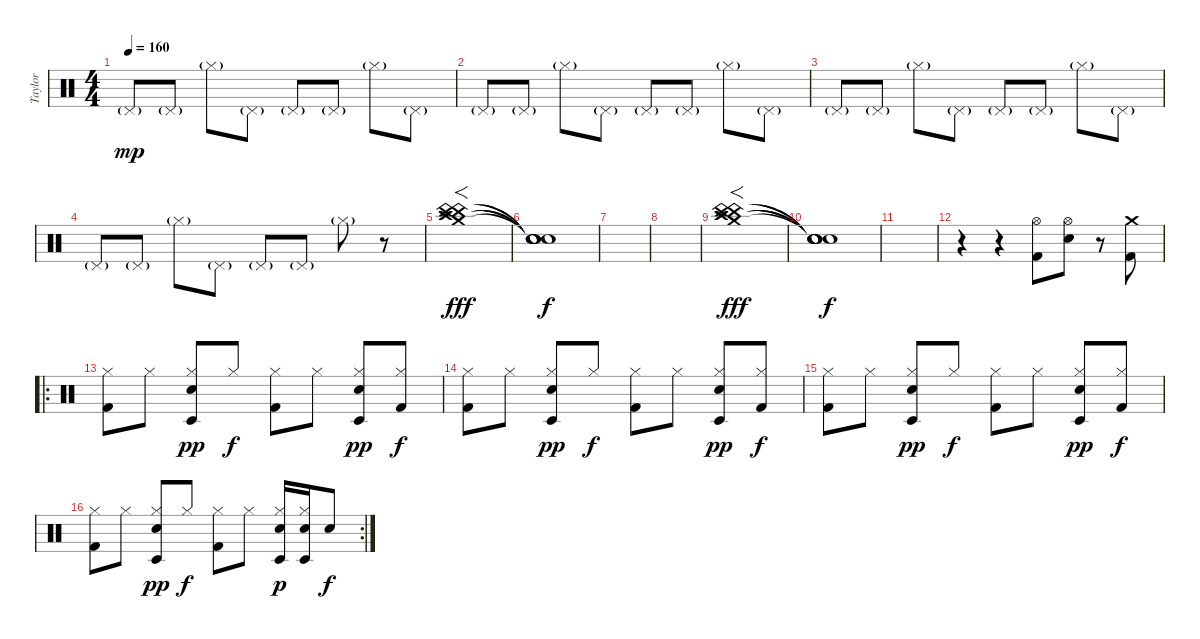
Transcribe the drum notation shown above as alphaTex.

\track ("Taylor" "Taylor") {instrument percussion}
\staff {score}
\articulation defaults
\ts (4 4)
\tempo 160
\clef neutral
\ks c "Pedal Hi-Hat (hit)"{g}.8{dy mp} "Pedal Hi-Hat (hit)"{g}.8 "Hi-Hat (closed)"{g}.8 "Pedal Hi-Hat (hit)"{g}.8 "Pedal Hi-Hat (hit)"{g}.8 "Pedal Hi-Hat (hit)"{g}.8 "Hi-Hat (closed)"{g}.8 "Pedal Hi-Hat (hit)"{g}.8
|
"Pedal Hi-Hat (hit)"{g}.8 "Pedal Hi-Hat (hit)"{g}.8 "Hi-Hat (closed)"{g}.8 "Pedal Hi-Hat (hit)"{g}.8 "Pedal Hi-Hat (hit)"{g}.8 "Pedal Hi-Hat (hit)"{g}.8 "Hi-Hat (closed)"{g}.8 "Pedal Hi-Hat (hit)"{g}.8 |
"Pedal Hi-Hat (hit)"{g}.8 "Pedal Hi-Hat (hit)"{g}.8 "Hi-Hat (closed)"{g}.8 "Pedal Hi-Hat (hit)"{g}.8 "Pedal Hi-Hat (hit)"{g}.8 "Pedal Hi-Hat (hit)"{g}.8 "Hi-Hat (closed)"{g}.8 "Pedal Hi-Hat (hit)"{g}.8 |
"Pedal Hi-Hat (hit)"{g}.8 "Pedal Hi-Hat (hit)"{g}.8 "Hi-Hat (closed)"{g}.8 "Pedal Hi-Hat (hit)"{g}.8 "Pedal Hi-Hat (hit)"{g}.8 "Pedal Hi-Hat (hit)"{g}.8 "Hi-Hat (closed)"{g}.8 r.8 |
("Crash medium (hit)" "Crash high (hit)" "China (hit)" "China (hit)" "Crash high (hit)").1{f dy fff} |
("Snare (hit)"{t} "Snare (hit)"{t} "Snare (hit)"{t} "Snare (hit)"{t} "Snare (hit)"{t}).1{dy f} |
|
|
("Crash medium (hit)" "Crash high (hit)" "China (hit)" "China (hit)" "Crash high (hit)").1{f dy fff} |
("Snare (hit)"{t} "Snare (hit)"{t} "Snare (hit)"{t} "Snare (hit)"{t} "Snare (hit)"{t}).1{dy f} |
|
r.4 r.4 ("Hi-Hat (open)" "Kick (hit) 2").8 ("Hi-Hat (open)" "Electric Snare (hit)").8 r.8 ("Crash medium (hit)" "Kick (hit) 2").8 |
\ro
("Hi-Hat (closed)" "Kick (hit) 2").8 "Hi-Hat (closed)".8 ("Hi-Hat (closed)" "Timbale low (hit)" "Electric Snare (hit)").8{dy pp} "Hi-Hat (closed)".8{dy f} ("Hi-Hat (closed)" "Kick (hit) 2").8 "Hi-Hat (closed)".8 ("Hi-Hat (closed)" "Timbale low (hit)" "Electric Snare (hit)").8{dy pp} ("Hi-Hat (closed)" "Kick (hit) 2").8{dy f} |
("Hi-Hat (closed)" "Kick (hit) 2").8 "Hi-Hat (closed)".8 ("Hi-Hat (closed)" "Timbale low (hit)" "Electric Snare (hit)").8{dy pp} "Hi-Hat (closed)".8{dy f} ("Hi-Hat (closed)" "Kick (hit) 2").8 "Hi-Hat (closed)".8 ("Hi-Hat (closed)" "Timbale low (hit)" "Electric Snare (hit)").8{dy pp} ("Hi-Hat (closed)" "Kick (hit) 2").8{dy f} |
("Hi-Hat (closed)" "Kick (hit) 2").8 "Hi-Hat (closed)".8 ("Hi-Hat (closed)" "Timbale low (hit)" "Electric Snare (hit)").8{dy pp} "Hi-Hat (closed)".8{dy f} ("Hi-Hat (closed)" "Kick (hit) 2").8 "Hi-Hat (closed)".8 ("Hi-Hat (closed)" "Timbale low (hit)" "Electric Snare (hit)").8{dy pp} ("Hi-Hat (closed)" "Kick (hit) 2").8{dy f} |
\rc 2
("Hi-Hat (closed)" "Kick (hit) 2").8 "Hi-Hat (closed)".8 ("Hi-Hat (closed)" "Timbale low (hit)" "Electric Snare (hit)").8{dy pp} "Hi-Hat (closed)".8{dy f} ("Hi-Hat (closed)" "Kick (hit) 2").8 "Hi-Hat (closed)".8 ("Hi-Hat (closed)" "Timbale low (hit)" "Electric Snare (hit)").16{dy p} ("Hi-Hat (closed)" "Timbale low (hit)" "Electric Snare (hit)").16 "Electric Snare (hit)".8{dy f}
